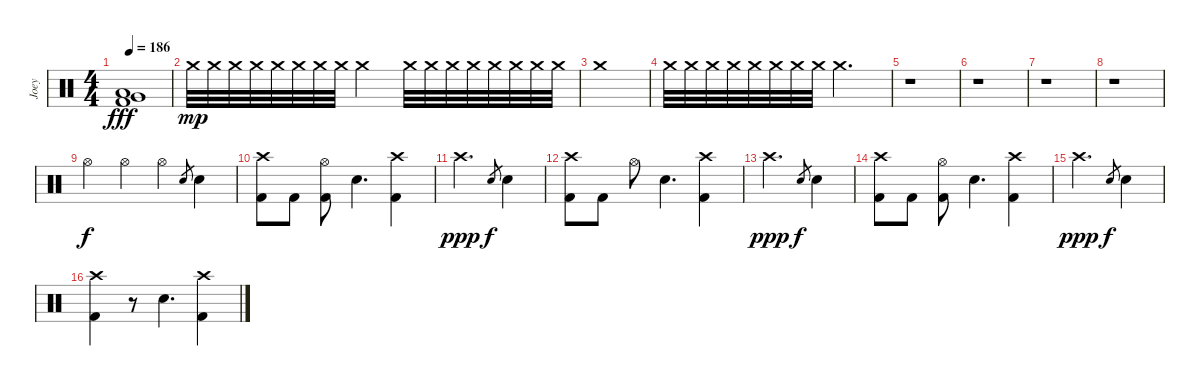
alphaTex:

\track ("Joey" "Joey") {instrument percussion}
\staff {score}
\articulation defaults
\ts (4 4)
\tempo 186
\clef neutral
\ks c
("Very Low Tom (hit)" "Low Floor Tom (hit)" "Kick (hit) 2").1{dy fff} |
"Crash medium (hit)".32{dy mp} "Crash medium (hit)".32 "Crash medium (hit)".32 "Crash medium (hit)".32 "Crash medium (hit)".32 "Crash medium (hit)".32 "Crash medium (hit)".32 "Crash medium (hit)".32 "Crash medium (hit)".2 "Crash medium (hit)".32 "Crash medium (hit)".32 "Crash medium (hit)".32 "Crash medium (hit)".32 "Crash medium (hit)".32 "Crash medium (hit)".32 "Crash medium (hit)".32 "Crash medium (hit)".32 |
"Crash medium (hit)".1 |
"Crash medium (hit)".32 "Crash medium (hit)".32 "Crash medium (hit)".32 "Crash medium (hit)".32 "Crash medium (hit)".32 "Crash medium (hit)".32 "Crash medium (hit)".32 "Crash medium (hit)".32 "Crash medium (hit)".2{d} |
r.1 |
r.1 |
r.1 |
r.1 |
"Hi-Hat (open)".4{dy f} "Hi-Hat (open)".4 "Hi-Hat (open)".4 "Electric Snare (hit)".8{gr} "Electric Snare (hit)".4 |
("Crash high (hit)" "Kick (hit) 2").8 "Kick (hit) 2".8 ("Hi-Hat (open)" "Kick (hit) 2").8 "Electric Snare (hit)".4{d} ("Crash high (hit)" "Kick (hit) 2").4 |
"Crash high (hit)".2{d dy ppp} "Electric Snare (hit)".8{gr dy f} "Electric Snare (hit)".4 |
("Crash high (hit)" "Kick (hit) 2").8 "Kick (hit) 2".8 "Hi-Hat (open)".8 "Electric Snare (hit)".4{d} ("Crash high (hit)" "Kick (hit) 2").4 |
"Crash high (hit)".2{d dy ppp} "Electric Snare (hit)".8{gr dy f} "Electric Snare (hit)".4 |
("Crash high (hit)" "Kick (hit) 2").8 "Kick (hit) 2".8 ("Hi-Hat (open)" "Kick (hit) 2").8 "Electric Snare (hit)".4{d} ("Crash high (hit)" "Kick (hit) 2").4 |
"Crash high (hit)".2{d dy ppp} "Electric Snare (hit)".8{gr dy f} "Electric Snare (hit)".4 |
("Crash high (hit)" "Kick (hit) 2").4 r.8 "Electric Snare (hit)".4{d} ("Crash high (hit)" "Kick (hit) 2").4
